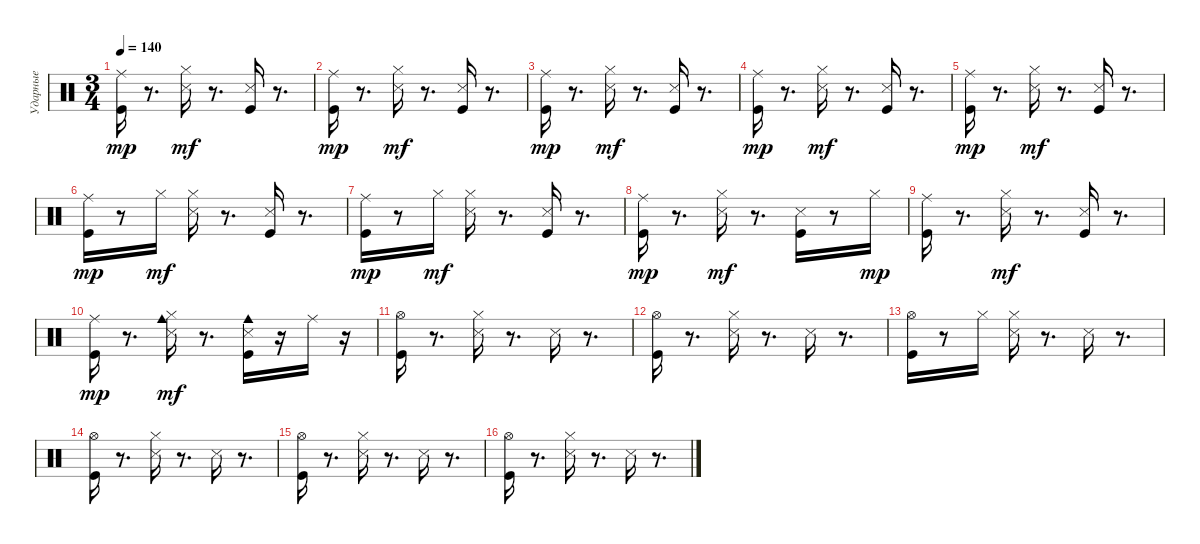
\track ("Ударные" "Ударные") {instrument percussion}
\staff {score}
\articulation defaults
\ts (3 4)
\tempo 140
\clef neutral
\ks c
("Kick (hit)" "Ride (middle)").16{dy mp} r.8{d} ("Hi-Hat (closed)" "Snare (side stick) 3").16{dy mf} r.8{d} ("Kick (hit)" "Snare (side stick) 3").16 r.8{d} |
("Kick (hit)" "Ride (middle)").16{dy mp} r.8{d} ("Hi-Hat (closed)" "Snare (side stick) 3").16{dy mf} r.8{d} ("Kick (hit)" "Snare (side stick) 3").16 r.8{d} |
("Kick (hit)" "Ride (middle)").16{dy mp} r.8{d} ("Hi-Hat (closed)" "Snare (side stick) 3").16{dy mf} r.8{d} ("Kick (hit)" "Snare (side stick) 3").16 r.8{d} |
("Kick (hit)" "Ride (middle)").16{dy mp} r.8{d} ("Hi-Hat (closed)" "Snare (side stick) 3").16{dy mf} r.8{d} ("Kick (hit)" "Snare (side stick) 3").16 r.8{d} |
("Kick (hit)" "Ride (middle)").16{dy mp} r.8{d} ("Hi-Hat (closed)" "Snare (side stick) 3").16{dy mf} r.8{d} ("Kick (hit)" "Snare (side stick) 3").16 r.8{d} |
("Kick (hit)" "Ride (middle)").16{dy mp} r.8 "Hi-Hat (closed)".16{dy mf} ("Hi-Hat (closed)" "Snare (side stick) 3").16 r.8{d} ("Kick (hit)" "Snare (side stick) 3").16 r.8{d} |
("Kick (hit)" "Ride (middle)").16{dy mp} r.8 "Hi-Hat (closed)".16{dy mf} ("Hi-Hat (closed)" "Snare (side stick) 3").16 r.8{d} ("Kick (hit)" "Snare (side stick) 3").16 r.8{d} |
("Kick (hit)" "Ride (middle)").16{dy mp} r.8{d} ("Hi-Hat (closed)" "Snare (side stick) 3").16{dy mf} r.8{d} ("Kick (hit)" "Snare (side stick) 3").16 r.8 "Hi-Hat (closed)".16{dy mp} |
("Kick (hit)" "Ride (middle)").16 r.8{d} ("Hi-Hat (closed)" "Snare (side stick) 3").16{dy mf} r.8{d} ("Kick (hit)" "Snare (side stick) 3").16 r.8{d} |
("Kick (hit)" "Ride (middle)").16{dy mp} r.8{d} ("Hi-Hat (closed)" "Snare (side stick) 3" "Cowbell medium (hit)").16{dy mf} r.8{d} ("Kick (hit)" "Snare (side stick) 3" "Cowbell medium (hit)").16 r.16 "Ride (middle)".16 r.16 |
("Kick (hit)" "Hi-Hat (open)").16 r.8{d} ("Hi-Hat (closed)" "Snare (side stick) 3").16 r.8{d} "Snare (side stick) 3".16 r.8{d} |
("Kick (hit)" "Hi-Hat (open)").16 r.8{d} ("Hi-Hat (closed)" "Snare (side stick) 3").16 r.8{d} "Snare (side stick) 3".16 r.8{d} |
("Kick (hit)" "Hi-Hat (open)").16 r.8 "Hi-Hat (closed)".16 ("Hi-Hat (closed)" "Snare (side stick) 3").16 r.8{d} "Snare (side stick) 3".16 r.8{d} |
("Kick (hit)" "Hi-Hat (open)").16 r.8{d} ("Hi-Hat (closed)" "Snare (side stick) 3").16 r.8{d} "Snare (side stick) 3".16 r.8{d} |
("Kick (hit)" "Hi-Hat (open)").16 r.8{d} ("Hi-Hat (closed)" "Snare (side stick) 3").16 r.8{d} "Snare (side stick) 3".16 r.8{d} |
("Kick (hit)" "Hi-Hat (open)").16 r.8{d} ("Hi-Hat (closed)" "Snare (side stick) 3").16 r.8{d} "Snare (side stick) 3".16 r.8{d}
